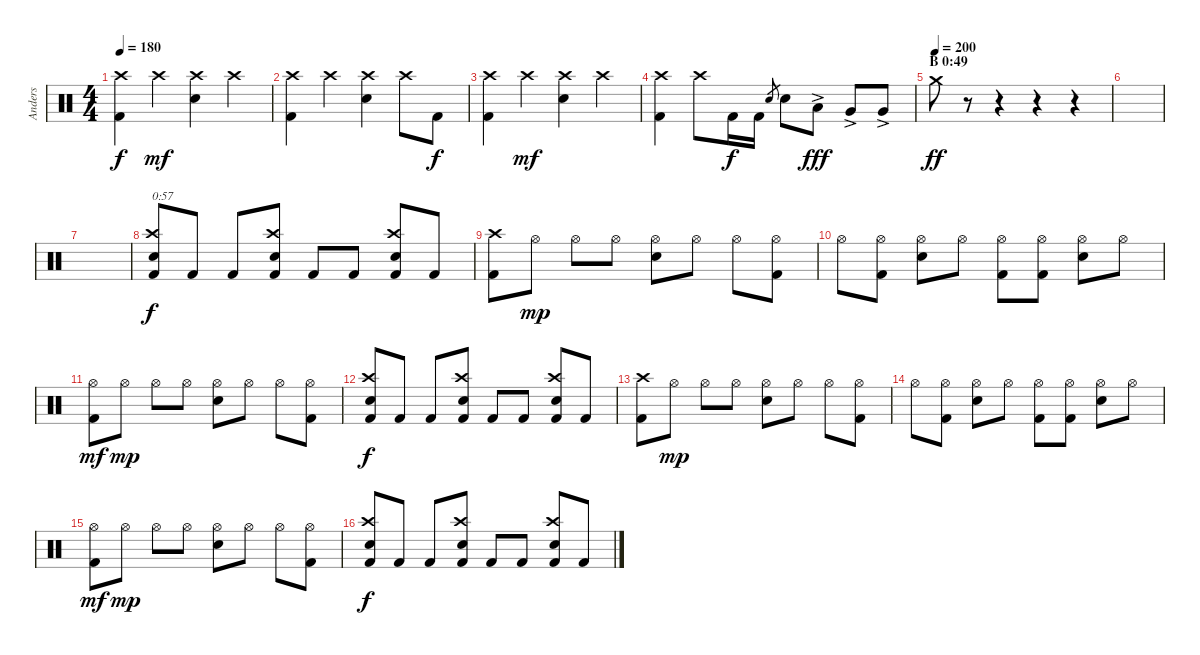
\track ("Anders" "Anders") {instrument percussion}
\staff {score}
\articulation defaults
\ts (4 4)
\tempo 180
\clef neutral
\ks c
("Kick (hit) 2" "Crash high (hit)").4{dy f} "Crash high (hit)".4{dy mf} ("Electric Snare (hit)" "Crash high (hit)").4 "Crash high (hit)".4 |
("Kick (hit) 2" "Crash high (hit)").4 "Crash high (hit)".4 ("Electric Snare (hit)" "Crash high (hit)").4 "Crash high (hit)".8 "Kick (hit) 2".8{dy f} |
("Kick (hit) 2" "Crash high (hit)").4 "Crash high (hit)".4{dy mf} ("Electric Snare (hit)" "Crash high (hit)").4 "Crash high (hit)".4 |
("Kick (hit) 2" "Crash high (hit)").4 "Crash high (hit)".8 "Kick (hit) 2".16{dy f} "Kick (hit) 2".16 "Electric Snare (hit)".8{gr} "Electric Snare (hit)".8 "Low Tom (hit)"{ac}.8{dy fff} "Very Low Tom (hit)"{ac}.8 "Very Low Tom (hit)"{ac}.8 |
\section ("" "B 0:49")
\tempo (200)
"Crash medium (hit)".8{dy ff} r.8{volume 0} r.4 r.4 r.4 |
|
|
("Kick (hit) 2" "Electric Snare (hit)" "Crash high (hit)").8{txt "0:57" dy f volume 16} "Kick (hit) 2".8 "Kick (hit) 2".8 ("Kick (hit) 2" "Electric Snare (hit)" "Crash high (hit)").8 "Kick (hit) 2".8 "Kick (hit) 2".8 ("Kick (hit) 2" "Electric Snare (hit)" "Crash high (hit)").8 "Kick (hit) 2".8 |
("Kick (hit) 2" "Crash high (hit)").8 "Hi-Hat (open)".8{dy mp} "Hi-Hat (open)".8 "Hi-Hat (open)".8 ("Electric Snare (hit)" "Hi-Hat (open)").8 "Hi-Hat (open)".8 "Hi-Hat (open)".8 ("Kick (hit) 2" "Hi-Hat (open)").8 |
"Hi-Hat (open)".8 ("Kick (hit) 2" "Hi-Hat (open)").8 ("Electric Snare (hit)" "Hi-Hat (open)").8 "Hi-Hat (open)".8 ("Kick (hit) 2" "Hi-Hat (open)").8 ("Kick (hit) 2" "Hi-Hat (open)").8 ("Electric Snare (hit)" "Hi-Hat (open)").8 "Hi-Hat (open)".8 |
("Kick (hit) 2" "Hi-Hat (open)").8{dy mf} "Hi-Hat (open)".8{dy mp} "Hi-Hat (open)".8 "Hi-Hat (open)".8 ("Electric Snare (hit)" "Hi-Hat (open)").8 "Hi-Hat (open)".8 "Hi-Hat (open)".8 ("Kick (hit) 2" "Hi-Hat (open)").8 |
("Kick (hit) 2" "Electric Snare (hit)" "Crash high (hit)").8{dy f} "Kick (hit) 2".8 "Kick (hit) 2".8 ("Kick (hit) 2" "Electric Snare (hit)" "Crash high (hit)").8 "Kick (hit) 2".8 "Kick (hit) 2".8 ("Kick (hit) 2" "Electric Snare (hit)" "Crash high (hit)").8 "Kick (hit) 2".8 |
("Kick (hit) 2" "Crash high (hit)").8 "Hi-Hat (open)".8{dy mp} "Hi-Hat (open)".8 "Hi-Hat (open)".8 ("Electric Snare (hit)" "Hi-Hat (open)").8 "Hi-Hat (open)".8 "Hi-Hat (open)".8 ("Kick (hit) 2" "Hi-Hat (open)").8 |
"Hi-Hat (open)".8 ("Kick (hit) 2" "Hi-Hat (open)").8 ("Electric Snare (hit)" "Hi-Hat (open)").8 "Hi-Hat (open)".8 ("Kick (hit) 2" "Hi-Hat (open)").8 ("Kick (hit) 2" "Hi-Hat (open)").8 ("Electric Snare (hit)" "Hi-Hat (open)").8 "Hi-Hat (open)".8 |
("Kick (hit) 2" "Hi-Hat (open)").8{dy mf} "Hi-Hat (open)".8{dy mp} "Hi-Hat (open)".8 "Hi-Hat (open)".8 ("Electric Snare (hit)" "Hi-Hat (open)").8 "Hi-Hat (open)".8 "Hi-Hat (open)".8 ("Kick (hit) 2" "Hi-Hat (open)").8 |
("Kick (hit) 2" "Electric Snare (hit)" "Crash high (hit)").8{dy f} "Kick (hit) 2".8 "Kick (hit) 2".8 ("Kick (hit) 2" "Electric Snare (hit)" "Crash high (hit)").8 "Kick (hit) 2".8 "Kick (hit) 2".8 ("Kick (hit) 2" "Electric Snare (hit)" "Crash high (hit)").8 "Kick (hit) 2".8
